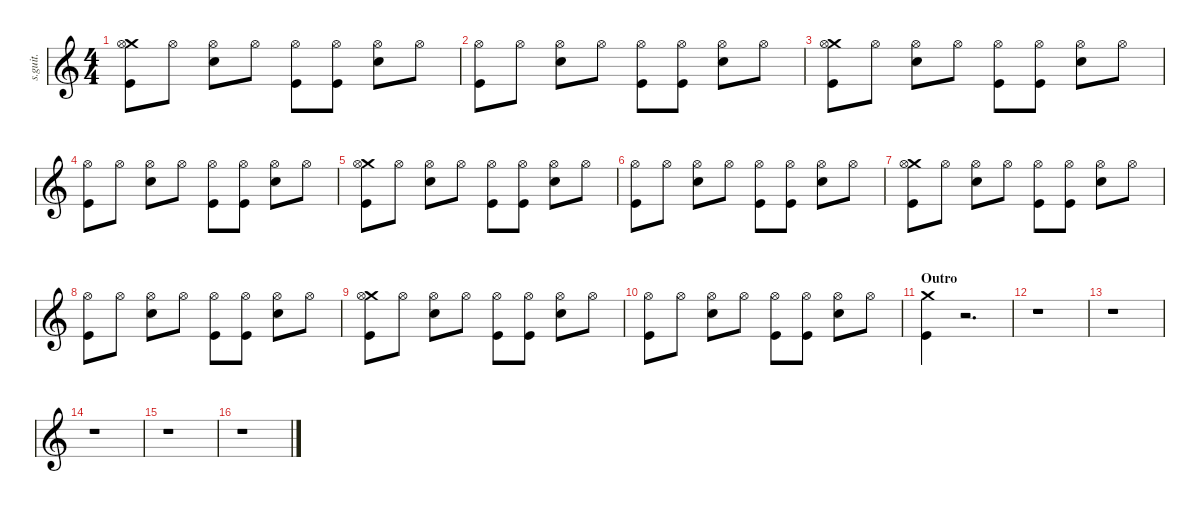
\defaultSystemsLayout 4
\hideDynamics
\bracketExtendMode nobrackets
\track ("Will Champion" "s.guit.") {instrument percussion}
\staff {score}
\articulation defaults
\ts (4 4)
\tempo (87 hide)
\clef g2
\ks c
("Crash medium (hit)" "Kick (hit)" "Hi-Hat (open)").8{lyrics (0 "") lyrics (1 "") lyrics (2 "") lyrics (3 "") lyrics (4 "") dy mf} "Hi-Hat (open)".8{lyrics (0 "") lyrics (1 "") lyrics (2 "") lyrics (3 "") lyrics (4 "")} ("Snare (hit) 2" "Hi-Hat (open)").8{lyrics (0 "") lyrics (1 "") lyrics (2 "") lyrics (3 "") lyrics (4 "")} "Hi-Hat (open)".8{lyrics (0 "") lyrics (1 "") lyrics (2 "") lyrics (3 "") lyrics (4 "")} ("Kick (hit)" "Hi-Hat (open)").8{lyrics (0 "") lyrics (1 "") lyrics (2 "") lyrics (3 "") lyrics (4 "")} ("Kick (hit)" "Hi-Hat (open)").8{lyrics (0 "") lyrics (1 "") lyrics (2 "") lyrics (3 "") lyrics (4 "")} ("Snare (hit) 2" "Hi-Hat (open)").8{lyrics (0 "") lyrics (1 "") lyrics (2 "") lyrics (3 "") lyrics (4 "")} "Hi-Hat (open)".8{lyrics (0 "") lyrics (1 "") lyrics (2 "") lyrics (3 "") lyrics (4 "")} |
("Kick (hit)" "Hi-Hat (open)").8{lyrics (0 "") lyrics (1 "") lyrics (2 "") lyrics (3 "") lyrics (4 "")} "Hi-Hat (open)".8{lyrics (0 "") lyrics (1 "") lyrics (2 "") lyrics (3 "") lyrics (4 "")} ("Snare (hit) 2" "Hi-Hat (open)").8{lyrics (0 "") lyrics (1 "") lyrics (2 "") lyrics (3 "") lyrics (4 "")} "Hi-Hat (open)".8{lyrics (0 "") lyrics (1 "") lyrics (2 "") lyrics (3 "") lyrics (4 "")} ("Kick (hit)" "Hi-Hat (open)").8{lyrics (0 "") lyrics (1 "") lyrics (2 "") lyrics (3 "") lyrics (4 "")} ("Kick (hit)" "Hi-Hat (open)").8{lyrics (0 "") lyrics (1 "") lyrics (2 "") lyrics (3 "") lyrics (4 "")} ("Snare (hit) 2" "Hi-Hat (open)").8{lyrics (0 "") lyrics (1 "") lyrics (2 "") lyrics (3 "") lyrics (4 "")} "Hi-Hat (open)".8{lyrics (0 "") lyrics (1 "") lyrics (2 "") lyrics (3 "") lyrics (4 "")} |
("Crash medium (hit)" "Kick (hit)" "Hi-Hat (open)").8{lyrics (0 "") lyrics (1 "") lyrics (2 "") lyrics (3 "") lyrics (4 "")} "Hi-Hat (open)".8{lyrics (0 "") lyrics (1 "") lyrics (2 "") lyrics (3 "") lyrics (4 "")} ("Snare (hit) 2" "Hi-Hat (open)").8{lyrics (0 "") lyrics (1 "") lyrics (2 "") lyrics (3 "") lyrics (4 "")} "Hi-Hat (open)".8{lyrics (0 "") lyrics (1 "") lyrics (2 "") lyrics (3 "") lyrics (4 "")} ("Kick (hit)" "Hi-Hat (open)").8{lyrics (0 "") lyrics (1 "") lyrics (2 "") lyrics (3 "") lyrics (4 "")} ("Kick (hit)" "Hi-Hat (open)").8{lyrics (0 "") lyrics (1 "") lyrics (2 "") lyrics (3 "") lyrics (4 "")} ("Snare (hit) 2" "Hi-Hat (open)").8{lyrics (0 "") lyrics (1 "") lyrics (2 "") lyrics (3 "") lyrics (4 "")} "Hi-Hat (open)".8{lyrics (0 "") lyrics (1 "") lyrics (2 "") lyrics (3 "") lyrics (4 "")} |
("Kick (hit)" "Hi-Hat (open)").8{lyrics (0 "") lyrics (1 "") lyrics (2 "") lyrics (3 "") lyrics (4 "")} "Hi-Hat (open)".8{lyrics (0 "") lyrics (1 "") lyrics (2 "") lyrics (3 "") lyrics (4 "")} ("Snare (hit) 2" "Hi-Hat (open)").8{lyrics (0 "") lyrics (1 "") lyrics (2 "") lyrics (3 "") lyrics (4 "")} "Hi-Hat (open)".8{lyrics (0 "") lyrics (1 "") lyrics (2 "") lyrics (3 "") lyrics (4 "")} ("Kick (hit)" "Hi-Hat (open)").8{lyrics (0 "") lyrics (1 "") lyrics (2 "") lyrics (3 "") lyrics (4 "")} ("Kick (hit)" "Hi-Hat (open)").8{lyrics (0 "") lyrics (1 "") lyrics (2 "") lyrics (3 "") lyrics (4 "")} ("Snare (hit) 2" "Hi-Hat (open)").8{lyrics (0 "") lyrics (1 "") lyrics (2 "") lyrics (3 "") lyrics (4 "")} "Hi-Hat (open)".8{lyrics (0 "") lyrics (1 "") lyrics (2 "") lyrics (3 "") lyrics (4 "")} |
("Crash medium (hit)" "Kick (hit)" "Hi-Hat (open)").8{lyrics (0 "") lyrics (1 "") lyrics (2 "") lyrics (3 "") lyrics (4 "")} "Hi-Hat (open)".8{lyrics (0 "") lyrics (1 "") lyrics (2 "") lyrics (3 "") lyrics (4 "")} ("Snare (hit) 2" "Hi-Hat (open)").8{lyrics (0 "") lyrics (1 "") lyrics (2 "") lyrics (3 "") lyrics (4 "")} "Hi-Hat (open)".8{lyrics (0 "") lyrics (1 "") lyrics (2 "") lyrics (3 "") lyrics (4 "")} ("Kick (hit)" "Hi-Hat (open)").8{lyrics (0 "") lyrics (1 "") lyrics (2 "") lyrics (3 "") lyrics (4 "")} ("Kick (hit)" "Hi-Hat (open)").8{lyrics (0 "") lyrics (1 "") lyrics (2 "") lyrics (3 "") lyrics (4 "")} ("Snare (hit) 2" "Hi-Hat (open)").8{lyrics (0 "") lyrics (1 "") lyrics (2 "") lyrics (3 "") lyrics (4 "")} "Hi-Hat (open)".8{lyrics (0 "") lyrics (1 "") lyrics (2 "") lyrics (3 "") lyrics (4 "")} |
("Kick (hit)" "Hi-Hat (open)").8{lyrics (0 "") lyrics (1 "") lyrics (2 "") lyrics (3 "") lyrics (4 "")} "Hi-Hat (open)".8{lyrics (0 "") lyrics (1 "") lyrics (2 "") lyrics (3 "") lyrics (4 "")} ("Snare (hit) 2" "Hi-Hat (open)").8{lyrics (0 "") lyrics (1 "") lyrics (2 "") lyrics (3 "") lyrics (4 "")} "Hi-Hat (open)".8{lyrics (0 "") lyrics (1 "") lyrics (2 "") lyrics (3 "") lyrics (4 "")} ("Kick (hit)" "Hi-Hat (open)").8{lyrics (0 "") lyrics (1 "") lyrics (2 "") lyrics (3 "") lyrics (4 "")} ("Kick (hit)" "Hi-Hat (open)").8{lyrics (0 "") lyrics (1 "") lyrics (2 "") lyrics (3 "") lyrics (4 "")} ("Snare (hit) 2" "Hi-Hat (open)").8{lyrics (0 "") lyrics (1 "") lyrics (2 "") lyrics (3 "") lyrics (4 "")} "Hi-Hat (open)".8{lyrics (0 "") lyrics (1 "") lyrics (2 "") lyrics (3 "") lyrics (4 "")} |
("Crash medium (hit)" "Kick (hit)" "Hi-Hat (open)").8{lyrics (0 "") lyrics (1 "") lyrics (2 "") lyrics (3 "") lyrics (4 "")} "Hi-Hat (open)".8{lyrics (0 "") lyrics (1 "") lyrics (2 "") lyrics (3 "") lyrics (4 "")} ("Snare (hit) 2" "Hi-Hat (open)").8{lyrics (0 "") lyrics (1 "") lyrics (2 "") lyrics (3 "") lyrics (4 "")} "Hi-Hat (open)".8{lyrics (0 "") lyrics (1 "") lyrics (2 "") lyrics (3 "") lyrics (4 "")} ("Kick (hit)" "Hi-Hat (open)").8{lyrics (0 "") lyrics (1 "") lyrics (2 "") lyrics (3 "") lyrics (4 "")} ("Kick (hit)" "Hi-Hat (open)").8{lyrics (0 "") lyrics (1 "") lyrics (2 "") lyrics (3 "") lyrics (4 "")} ("Snare (hit) 2" "Hi-Hat (open)").8{lyrics (0 "") lyrics (1 "") lyrics (2 "") lyrics (3 "") lyrics (4 "")} "Hi-Hat (open)".8{lyrics (0 "") lyrics (1 "") lyrics (2 "") lyrics (3 "") lyrics (4 "")} |
("Kick (hit)" "Hi-Hat (open)").8{lyrics (0 "") lyrics (1 "") lyrics (2 "") lyrics (3 "") lyrics (4 "")} "Hi-Hat (open)".8{lyrics (0 "") lyrics (1 "") lyrics (2 "") lyrics (3 "") lyrics (4 "")} ("Snare (hit) 2" "Hi-Hat (open)").8{lyrics (0 "") lyrics (1 "") lyrics (2 "") lyrics (3 "") lyrics (4 "")} "Hi-Hat (open)".8{lyrics (0 "") lyrics (1 "") lyrics (2 "") lyrics (3 "") lyrics (4 "")} ("Kick (hit)" "Hi-Hat (open)").8{lyrics (0 "") lyrics (1 "") lyrics (2 "") lyrics (3 "") lyrics (4 "")} ("Kick (hit)" "Hi-Hat (open)").8{lyrics (0 "") lyrics (1 "") lyrics (2 "") lyrics (3 "") lyrics (4 "")} ("Snare (hit) 2" "Hi-Hat (open)").8{lyrics (0 "") lyrics (1 "") lyrics (2 "") lyrics (3 "") lyrics (4 "")} "Hi-Hat (open)".8{lyrics (0 "") lyrics (1 "") lyrics (2 "") lyrics (3 "") lyrics (4 "")} |
("Crash medium (hit)" "Kick (hit)" "Hi-Hat (open)").8{lyrics (0 "") lyrics (1 "") lyrics (2 "") lyrics (3 "") lyrics (4 "")} "Hi-Hat (open)".8{lyrics (0 "") lyrics (1 "") lyrics (2 "") lyrics (3 "") lyrics (4 "")} ("Snare (hit) 2" "Hi-Hat (open)").8{lyrics (0 "") lyrics (1 "") lyrics (2 "") lyrics (3 "") lyrics (4 "")} "Hi-Hat (open)".8{lyrics (0 "") lyrics (1 "") lyrics (2 "") lyrics (3 "") lyrics (4 "")} ("Kick (hit)" "Hi-Hat (open)").8{lyrics (0 "") lyrics (1 "") lyrics (2 "") lyrics (3 "") lyrics (4 "")} ("Kick (hit)" "Hi-Hat (open)").8{lyrics (0 "") lyrics (1 "") lyrics (2 "") lyrics (3 "") lyrics (4 "")} ("Snare (hit) 2" "Hi-Hat (open)").8{lyrics (0 "") lyrics (1 "") lyrics (2 "") lyrics (3 "") lyrics (4 "")} "Hi-Hat (open)".8{lyrics (0 "") lyrics (1 "") lyrics (2 "") lyrics (3 "") lyrics (4 "")} |
("Kick (hit)" "Hi-Hat (open)").8{lyrics (0 "") lyrics (1 "") lyrics (2 "") lyrics (3 "") lyrics (4 "")} "Hi-Hat (open)".8{lyrics (0 "") lyrics (1 "") lyrics (2 "") lyrics (3 "") lyrics (4 "")} ("Snare (hit) 2" "Hi-Hat (open)").8{lyrics (0 "") lyrics (1 "") lyrics (2 "") lyrics (3 "") lyrics (4 "")} "Hi-Hat (open)".8{lyrics (0 "") lyrics (1 "") lyrics (2 "") lyrics (3 "") lyrics (4 "")} ("Kick (hit)" "Hi-Hat (open)").8{lyrics (0 "") lyrics (1 "") lyrics (2 "") lyrics (3 "") lyrics (4 "")} ("Kick (hit)" "Hi-Hat (open)").8{lyrics (0 "") lyrics (1 "") lyrics (2 "") lyrics (3 "") lyrics (4 "")} ("Snare (hit) 2" "Hi-Hat (open)").8{lyrics (0 "") lyrics (1 "") lyrics (2 "") lyrics (3 "") lyrics (4 "")} "Hi-Hat (open)".8{lyrics (0 "") lyrics (1 "") lyrics (2 "") lyrics (3 "") lyrics (4 "")} |
\section ("" "Outro")
\tempo (85 hide)
("Crash medium (hit)" "Kick (hit)").4{lyrics (0 "") lyrics (1 "") lyrics (2 "") lyrics (3 "") lyrics (4 "")} r.2{d} |
r.1 |
r.1 |
r.1 |
r.1 |
r.1
